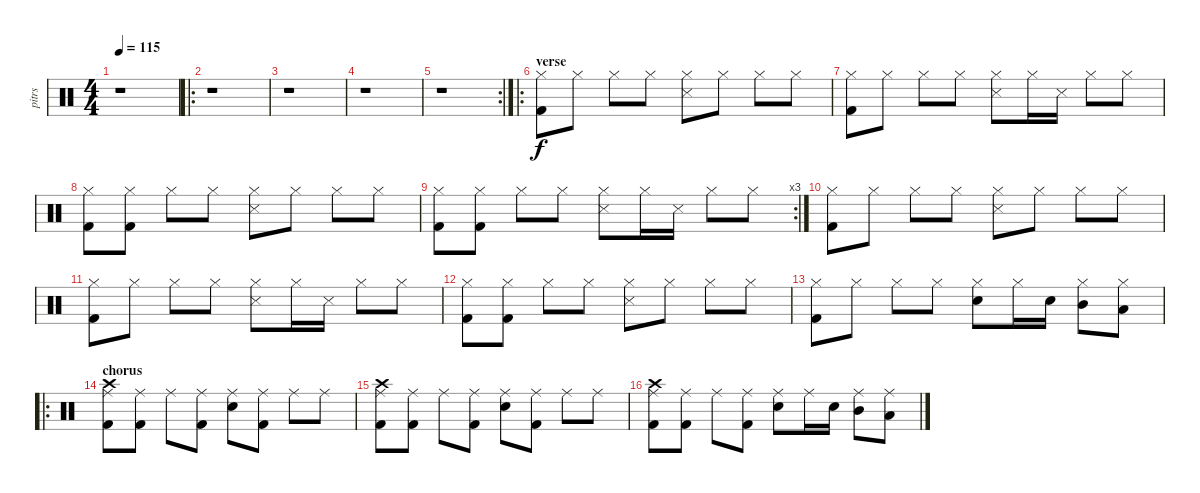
\track ("pitrs" "pitrs") {instrument percussion}
\staff {score}
\articulation defaults
\ts (4 4)
\tempo 115
\clef neutral
\ks c
r.1{dy f} |
\ro
r.1 |
r.1 |
r.1 |
\rc 2
r.1 |
\ro
\section ("" "verse")
("Kick (hit) 2" "Hi-Hat (closed)").8 "Hi-Hat (closed)".8 "Hi-Hat (closed)".8 "Hi-Hat (closed)".8 ("Snare (side stick) 3" "Hi-Hat (closed)").8 "Hi-Hat (closed)".8 "Hi-Hat (closed)".8 "Hi-Hat (closed)".8 |
("Kick (hit) 2" "Hi-Hat (closed)").8 "Hi-Hat (closed)".8 "Hi-Hat (closed)".8 "Hi-Hat (closed)".8 ("Snare (side stick) 3" "Hi-Hat (closed)").8 "Hi-Hat (closed)".16 "Snare (side stick) 3".16 "Hi-Hat (closed)".8 "Hi-Hat (closed)".8 |
("Kick (hit) 2" "Hi-Hat (closed)").8 ("Kick (hit) 2" "Hi-Hat (closed)").8 "Hi-Hat (closed)".8 "Hi-Hat (closed)".8 ("Snare (side stick) 3" "Hi-Hat (closed)").8 "Hi-Hat (closed)".8 "Hi-Hat (closed)".8 "Hi-Hat (closed)".8 |
\rc 3
("Kick (hit) 2" "Hi-Hat (closed)").8 ("Kick (hit) 2" "Hi-Hat (closed)").8 "Hi-Hat (closed)".8 "Hi-Hat (closed)".8 ("Snare (side stick) 3" "Hi-Hat (closed)").8 "Hi-Hat (closed)".16 "Snare (side stick) 3".16 "Hi-Hat (closed)".8 "Hi-Hat (closed)".8 |
("Kick (hit) 2" "Hi-Hat (closed)").8 "Hi-Hat (closed)".8 "Hi-Hat (closed)".8 "Hi-Hat (closed)".8 ("Snare (side stick) 3" "Hi-Hat (closed)").8 "Hi-Hat (closed)".8 "Hi-Hat (closed)".8 "Hi-Hat (closed)".8 |
("Kick (hit) 2" "Hi-Hat (closed)").8 "Hi-Hat (closed)".8 "Hi-Hat (closed)".8 "Hi-Hat (closed)".8 ("Snare (side stick) 3" "Hi-Hat (closed)").8 "Hi-Hat (closed)".16 "Snare (side stick) 3".16 "Hi-Hat (closed)".8 "Hi-Hat (closed)".8 |
("Kick (hit) 2" "Hi-Hat (closed)").8 ("Kick (hit) 2" "Hi-Hat (closed)").8 "Hi-Hat (closed)".8 "Hi-Hat (closed)".8 ("Snare (side stick) 3" "Hi-Hat (closed)").8 "Hi-Hat (closed)".8 "Hi-Hat (closed)".8 "Hi-Hat (closed)".8 |
("Kick (hit) 2" "Hi-Hat (closed)").8 "Hi-Hat (closed)".8 "Hi-Hat (closed)".8 "Hi-Hat (closed)".8 ("Snare (hit) 2" "Hi-Hat (closed)").8 "Hi-Hat (closed)".16 "Snare (hit) 2".16 ("Mid Tom (hit)" "Hi-Hat (closed)").8 ("Low Tom (hit)" "Hi-Hat (closed)").8 |
\ro
\section ("" "chorus")
("Crash high (hit)" "Kick (hit) 2" "Ride (middle)").8 ("Kick (hit) 2" "Ride (middle)").8 "Ride (middle)".8 ("Kick (hit) 2" "Ride (middle)").8 ("Snare (hit) 2" "Ride (middle)").8 ("Kick (hit) 2" "Ride (middle)").8 "Ride (middle)".8 "Ride (middle)".8 |
("Crash high (hit)" "Kick (hit) 2" "Ride (middle)").8 ("Kick (hit) 2" "Ride (middle)").8 "Ride (middle)".8 ("Kick (hit) 2" "Ride (middle)").8 ("Snare (hit) 2" "Ride (middle)").8 ("Kick (hit) 2" "Ride (middle)").8 "Ride (middle)".8 "Ride (middle)".8 |
("Crash high (hit)" "Kick (hit) 2" "Ride (middle)").8 ("Kick (hit) 2" "Ride (middle)").8 "Ride (middle)".8 ("Kick (hit) 2" "Ride (middle)").8 ("Snare (hit) 2" "Ride (middle)").8 "Ride (middle)".16 "Snare (hit) 2".16 ("Mid Tom (hit)" "Ride (middle)").8 ("Low Tom (hit)" "Ride (middle)").8
